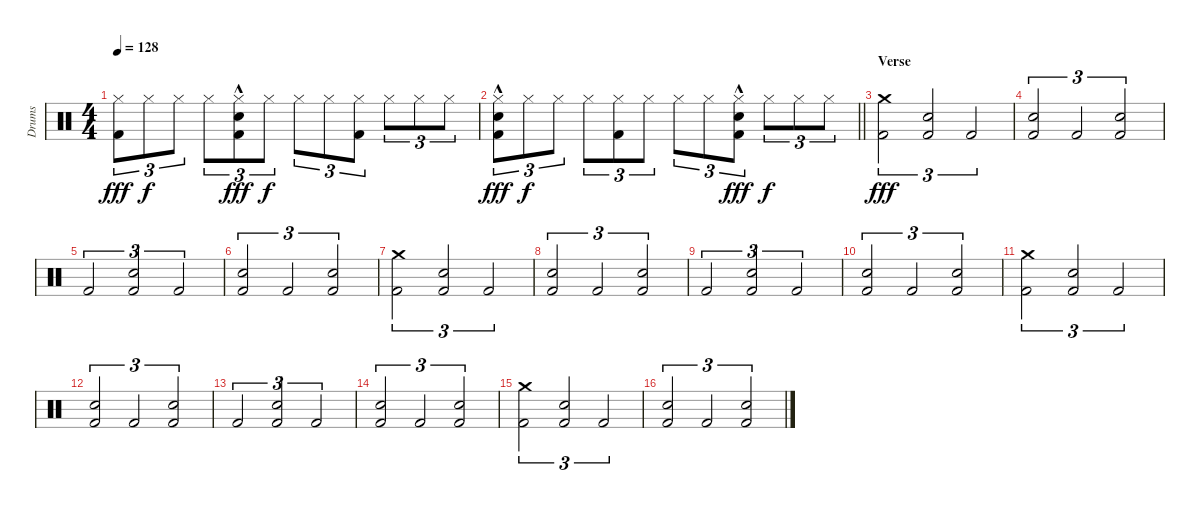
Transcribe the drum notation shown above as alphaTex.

\track ("Drums" "Drums") {instrument percussion}
\staff {score}
\articulation defaults
\ts (4 4)
\tempo 128
\clef neutral
\ks c
("Hi-Hat (closed)" "Kick (hit) 2").8{tu (3 2) dy fff} "Hi-Hat (closed)".8{tu (3 2) dy f} "Hi-Hat (closed)".8{tu (3 2)} "Hi-Hat (closed)".8{tu (3 2)} ("Hi-Hat (closed)" "Snare (hit) 2"{hac} "Kick (hit) 2").8{tu (3 2) dy fff} "Hi-Hat (closed)".8{tu (3 2) dy f} "Hi-Hat (closed)".8{tu (3 2)} "Hi-Hat (closed)".8{tu (3 2)} ("Hi-Hat (closed)" "Kick (hit) 2").8{tu (3 2)} "Hi-Hat (closed)".8{tu (3 2)} "Hi-Hat (closed)".8{tu (3 2)} "Hi-Hat (closed)".8{tu (3 2)} |
\barLineRight lightlight
("Hi-Hat (closed)" "Snare (hit) 2"{hac} "Kick (hit) 2").8{tu (3 2) dy fff} "Hi-Hat (closed)".8{tu (3 2) dy f} "Hi-Hat (closed)".8{tu (3 2)} "Hi-Hat (closed)".8{tu (3 2)} ("Hi-Hat (closed)" "Kick (hit) 2").8{tu (3 2)} "Hi-Hat (closed)".8{tu (3 2)} "Hi-Hat (closed)".8{tu (3 2)} "Hi-Hat (closed)".8{tu (3 2)} ("Hi-Hat (closed)" "Snare (hit) 2"{hac} "Kick (hit) 2").8{tu (3 2) dy fff} "Hi-Hat (closed)".8{tu (3 2) dy f} "Hi-Hat (closed)".8{tu (3 2)} "Hi-Hat (closed)".8{tu (3 2)} |
\section ("" "Verse")
("Crash medium (hit)" "Kick (hit) 2").2{tu (3 2) dy fff} ("Snare (hit) 2" "Kick (hit) 2").2{tu (3 2)} "Kick (hit) 2".2{tu (3 2)} |
("Snare (hit) 2" "Kick (hit) 2").2{tu (3 2)} "Kick (hit) 2".2{tu (3 2)} ("Snare (hit) 2" "Kick (hit) 2").2{tu (3 2)} |
"Kick (hit) 2".2{tu (3 2)} ("Snare (hit) 2" "Kick (hit) 2").2{tu (3 2)} "Kick (hit) 2".2{tu (3 2)} |
("Snare (hit) 2" "Kick (hit) 2").2{tu (3 2)} "Kick (hit) 2".2{tu (3 2)} ("Snare (hit) 2" "Kick (hit) 2").2{tu (3 2)} |
("Crash medium (hit)" "Kick (hit) 2").2{tu (3 2)} ("Snare (hit) 2" "Kick (hit) 2").2{tu (3 2)} "Kick (hit) 2".2{tu (3 2)} |
("Snare (hit) 2" "Kick (hit) 2").2{tu (3 2)} "Kick (hit) 2".2{tu (3 2)} ("Snare (hit) 2" "Kick (hit) 2").2{tu (3 2)} |
"Kick (hit) 2".2{tu (3 2)} ("Snare (hit) 2" "Kick (hit) 2").2{tu (3 2)} "Kick (hit) 2".2{tu (3 2)} |
("Snare (hit) 2" "Kick (hit) 2").2{tu (3 2)} "Kick (hit) 2".2{tu (3 2)} ("Snare (hit) 2" "Kick (hit) 2").2{tu (3 2)} |
("Crash medium (hit)" "Kick (hit) 2").2{tu (3 2)} ("Snare (hit) 2" "Kick (hit) 2").2{tu (3 2)} "Kick (hit) 2".2{tu (3 2)} |
("Snare (hit) 2" "Kick (hit) 2").2{tu (3 2)} "Kick (hit) 2".2{tu (3 2)} ("Snare (hit) 2" "Kick (hit) 2").2{tu (3 2)} |
"Kick (hit) 2".2{tu (3 2)} ("Snare (hit) 2" "Kick (hit) 2").2{tu (3 2)} "Kick (hit) 2".2{tu (3 2)} |
("Snare (hit) 2" "Kick (hit) 2").2{tu (3 2)} "Kick (hit) 2".2{tu (3 2)} ("Snare (hit) 2" "Kick (hit) 2").2{tu (3 2)} |
("Crash medium (hit)" "Kick (hit) 2").2{tu (3 2)} ("Snare (hit) 2" "Kick (hit) 2").2{tu (3 2)} "Kick (hit) 2".2{tu (3 2)} |
("Snare (hit) 2" "Kick (hit) 2").2{tu (3 2)} "Kick (hit) 2".2{tu (3 2)} ("Snare (hit) 2" "Kick (hit) 2").2{tu (3 2)}
